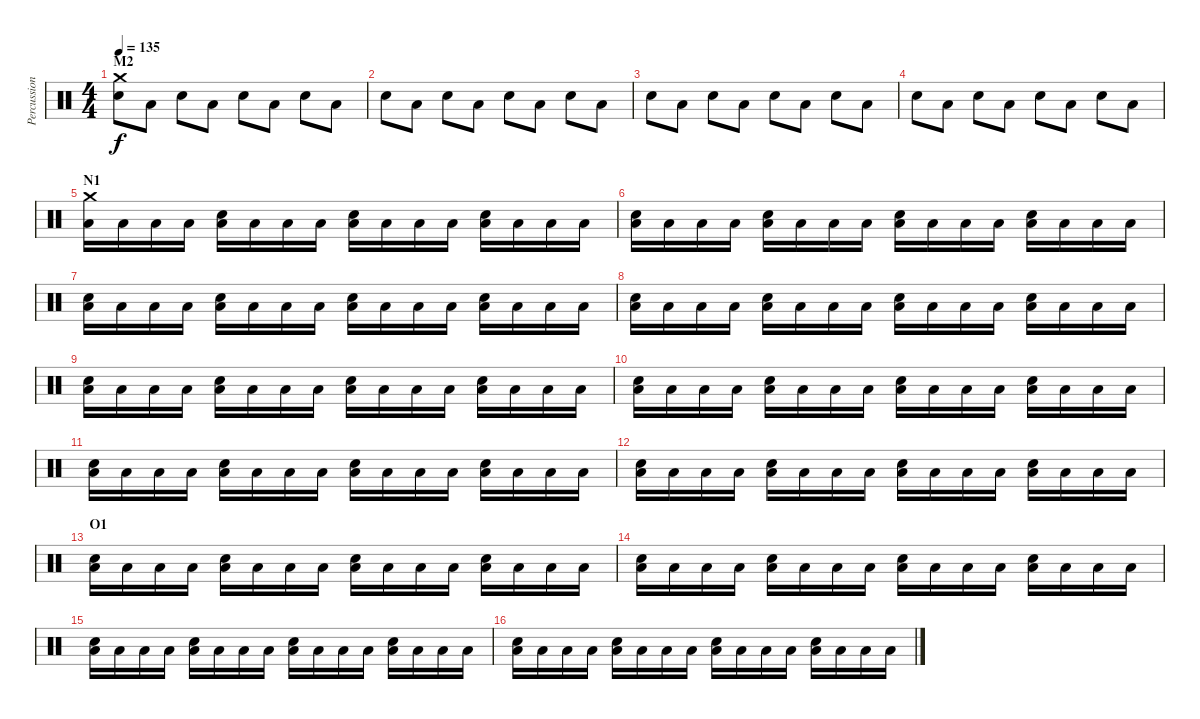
\track ("Percussion" "Percussion") {instrument percussion}
\staff {score}
\articulation defaults
\ts (4 4)
\section ("" "M2")
\tempo 135
\clef neutral
\ks c
("Electric Snare (hit)" "Crash medium (hit)").8{dy f} "Low Floor Tom (hit)".8 "Electric Snare (hit)".8 "Low Floor Tom (hit)".8 "Electric Snare (hit)".8 "Low Floor Tom (hit)".8 "Electric Snare (hit)".8 "Low Floor Tom (hit)".8 |
"Electric Snare (hit)".8 "Low Floor Tom (hit)".8 "Electric Snare (hit)".8 "Low Floor Tom (hit)".8 "Electric Snare (hit)".8 "Low Floor Tom (hit)".8 "Electric Snare (hit)".8 "Low Floor Tom (hit)".8 |
"Electric Snare (hit)".8 "Low Floor Tom (hit)".8 "Electric Snare (hit)".8 "Low Floor Tom (hit)".8 "Electric Snare (hit)".8 "Low Floor Tom (hit)".8 "Electric Snare (hit)".8 "Low Floor Tom (hit)".8 |
"Electric Snare (hit)".8 "Low Floor Tom (hit)".8 "Electric Snare (hit)".8 "Low Floor Tom (hit)".8 "Electric Snare (hit)".8 "Low Floor Tom (hit)".8 "Electric Snare (hit)".8 "Low Floor Tom (hit)".8 |
\section ("" "N1")
("Low Floor Tom (hit)" "Crash medium (hit)").16 "Low Floor Tom (hit)".16 "Low Floor Tom (hit)".16 "Low Floor Tom (hit)".16 ("Low Floor Tom (hit)" "Electric Snare (hit)").16 "Low Floor Tom (hit)".16 "Low Floor Tom (hit)".16 "Low Floor Tom (hit)".16 ("Low Floor Tom (hit)" "Electric Snare (hit)").16 "Low Floor Tom (hit)".16 "Low Floor Tom (hit)".16 "Low Floor Tom (hit)".16 ("Low Floor Tom (hit)" "Electric Snare (hit)").16 "Low Floor Tom (hit)".16 "Low Floor Tom (hit)".16 "Low Floor Tom (hit)".16 |
("Low Floor Tom (hit)" "Electric Snare (hit)").16 "Low Floor Tom (hit)".16 "Low Floor Tom (hit)".16 "Low Floor Tom (hit)".16 ("Low Floor Tom (hit)" "Electric Snare (hit)").16 "Low Floor Tom (hit)".16 "Low Floor Tom (hit)".16 "Low Floor Tom (hit)".16 ("Low Floor Tom (hit)" "Electric Snare (hit)").16 "Low Floor Tom (hit)".16 "Low Floor Tom (hit)".16 "Low Floor Tom (hit)".16 ("Low Floor Tom (hit)" "Electric Snare (hit)").16 "Low Floor Tom (hit)".16 "Low Floor Tom (hit)".16 "Low Floor Tom (hit)".16 |
("Low Floor Tom (hit)" "Electric Snare (hit)").16 "Low Floor Tom (hit)".16 "Low Floor Tom (hit)".16 "Low Floor Tom (hit)".16 ("Low Floor Tom (hit)" "Electric Snare (hit)").16 "Low Floor Tom (hit)".16 "Low Floor Tom (hit)".16 "Low Floor Tom (hit)".16 ("Low Floor Tom (hit)" "Electric Snare (hit)").16 "Low Floor Tom (hit)".16 "Low Floor Tom (hit)".16 "Low Floor Tom (hit)".16 ("Low Floor Tom (hit)" "Electric Snare (hit)").16 "Low Floor Tom (hit)".16 "Low Floor Tom (hit)".16 "Low Floor Tom (hit)".16 |
("Low Floor Tom (hit)" "Electric Snare (hit)").16 "Low Floor Tom (hit)".16 "Low Floor Tom (hit)".16 "Low Floor Tom (hit)".16 ("Low Floor Tom (hit)" "Electric Snare (hit)").16 "Low Floor Tom (hit)".16 "Low Floor Tom (hit)".16 "Low Floor Tom (hit)".16 ("Low Floor Tom (hit)" "Electric Snare (hit)").16 "Low Floor Tom (hit)".16 "Low Floor Tom (hit)".16 "Low Floor Tom (hit)".16 ("Low Floor Tom (hit)" "Electric Snare (hit)").16 "Low Floor Tom (hit)".16 "Low Floor Tom (hit)".16 "Low Floor Tom (hit)".16 |
("Low Floor Tom (hit)" "Electric Snare (hit)").16 "Low Floor Tom (hit)".16 "Low Floor Tom (hit)".16 "Low Floor Tom (hit)".16 ("Low Floor Tom (hit)" "Electric Snare (hit)").16 "Low Floor Tom (hit)".16 "Low Floor Tom (hit)".16 "Low Floor Tom (hit)".16 ("Low Floor Tom (hit)" "Electric Snare (hit)").16 "Low Floor Tom (hit)".16 "Low Floor Tom (hit)".16 "Low Floor Tom (hit)".16 ("Low Floor Tom (hit)" "Electric Snare (hit)").16 "Low Floor Tom (hit)".16 "Low Floor Tom (hit)".16 "Low Floor Tom (hit)".16 |
("Low Floor Tom (hit)" "Electric Snare (hit)").16 "Low Floor Tom (hit)".16 "Low Floor Tom (hit)".16 "Low Floor Tom (hit)".16 ("Low Floor Tom (hit)" "Electric Snare (hit)").16 "Low Floor Tom (hit)".16 "Low Floor Tom (hit)".16 "Low Floor Tom (hit)".16 ("Low Floor Tom (hit)" "Electric Snare (hit)").16 "Low Floor Tom (hit)".16 "Low Floor Tom (hit)".16 "Low Floor Tom (hit)".16 ("Low Floor Tom (hit)" "Electric Snare (hit)").16 "Low Floor Tom (hit)".16 "Low Floor Tom (hit)".16 "Low Floor Tom (hit)".16 |
("Low Floor Tom (hit)" "Electric Snare (hit)").16 "Low Floor Tom (hit)".16 "Low Floor Tom (hit)".16 "Low Floor Tom (hit)".16 ("Low Floor Tom (hit)" "Electric Snare (hit)").16 "Low Floor Tom (hit)".16 "Low Floor Tom (hit)".16 "Low Floor Tom (hit)".16 ("Low Floor Tom (hit)" "Electric Snare (hit)").16 "Low Floor Tom (hit)".16 "Low Floor Tom (hit)".16 "Low Floor Tom (hit)".16 ("Low Floor Tom (hit)" "Electric Snare (hit)").16 "Low Floor Tom (hit)".16 "Low Floor Tom (hit)".16 "Low Floor Tom (hit)".16 |
("Low Floor Tom (hit)" "Electric Snare (hit)").16 "Low Floor Tom (hit)".16 "Low Floor Tom (hit)".16 "Low Floor Tom (hit)".16 ("Low Floor Tom (hit)" "Electric Snare (hit)").16 "Low Floor Tom (hit)".16 "Low Floor Tom (hit)".16 "Low Floor Tom (hit)".16 ("Low Floor Tom (hit)" "Electric Snare (hit)").16 "Low Floor Tom (hit)".16 "Low Floor Tom (hit)".16 "Low Floor Tom (hit)".16 ("Low Floor Tom (hit)" "Electric Snare (hit)").16 "Low Floor Tom (hit)".16 "Low Floor Tom (hit)".16 "Low Floor Tom (hit)".16 |
\section ("" "O1")
("Low Floor Tom (hit)" "Electric Snare (hit)").16 "Low Floor Tom (hit)".16 "Low Floor Tom (hit)".16 "Low Floor Tom (hit)".16 ("Low Floor Tom (hit)" "Electric Snare (hit)").16 "Low Floor Tom (hit)".16 "Low Floor Tom (hit)".16 "Low Floor Tom (hit)".16 ("Low Floor Tom (hit)" "Electric Snare (hit)").16 "Low Floor Tom (hit)".16 "Low Floor Tom (hit)".16 "Low Floor Tom (hit)".16 ("Low Floor Tom (hit)" "Electric Snare (hit)").16 "Low Floor Tom (hit)".16 "Low Floor Tom (hit)".16 "Low Floor Tom (hit)".16 |
("Low Floor Tom (hit)" "Electric Snare (hit)").16 "Low Floor Tom (hit)".16 "Low Floor Tom (hit)".16 "Low Floor Tom (hit)".16 ("Low Floor Tom (hit)" "Electric Snare (hit)").16 "Low Floor Tom (hit)".16 "Low Floor Tom (hit)".16 "Low Floor Tom (hit)".16 ("Low Floor Tom (hit)" "Electric Snare (hit)").16 "Low Floor Tom (hit)".16 "Low Floor Tom (hit)".16 "Low Floor Tom (hit)".16 ("Low Floor Tom (hit)" "Electric Snare (hit)").16 "Low Floor Tom (hit)".16 "Low Floor Tom (hit)".16 "Low Floor Tom (hit)".16 |
("Low Floor Tom (hit)" "Electric Snare (hit)").16 "Low Floor Tom (hit)".16 "Low Floor Tom (hit)".16 "Low Floor Tom (hit)".16 ("Low Floor Tom (hit)" "Electric Snare (hit)").16 "Low Floor Tom (hit)".16 "Low Floor Tom (hit)".16 "Low Floor Tom (hit)".16 ("Low Floor Tom (hit)" "Electric Snare (hit)").16 "Low Floor Tom (hit)".16 "Low Floor Tom (hit)".16 "Low Floor Tom (hit)".16 ("Low Floor Tom (hit)" "Electric Snare (hit)").16 "Low Floor Tom (hit)".16 "Low Floor Tom (hit)".16 "Low Floor Tom (hit)".16 |
("Low Floor Tom (hit)" "Electric Snare (hit)").16 "Low Floor Tom (hit)".16 "Low Floor Tom (hit)".16 "Low Floor Tom (hit)".16 ("Low Floor Tom (hit)" "Electric Snare (hit)").16 "Low Floor Tom (hit)".16 "Low Floor Tom (hit)".16 "Low Floor Tom (hit)".16 ("Low Floor Tom (hit)" "Electric Snare (hit)").16 "Low Floor Tom (hit)".16 "Low Floor Tom (hit)".16 "Low Floor Tom (hit)".16 ("Low Floor Tom (hit)" "Electric Snare (hit)").16 "Low Floor Tom (hit)".16 "Low Floor Tom (hit)".16 "Low Floor Tom (hit)".16
